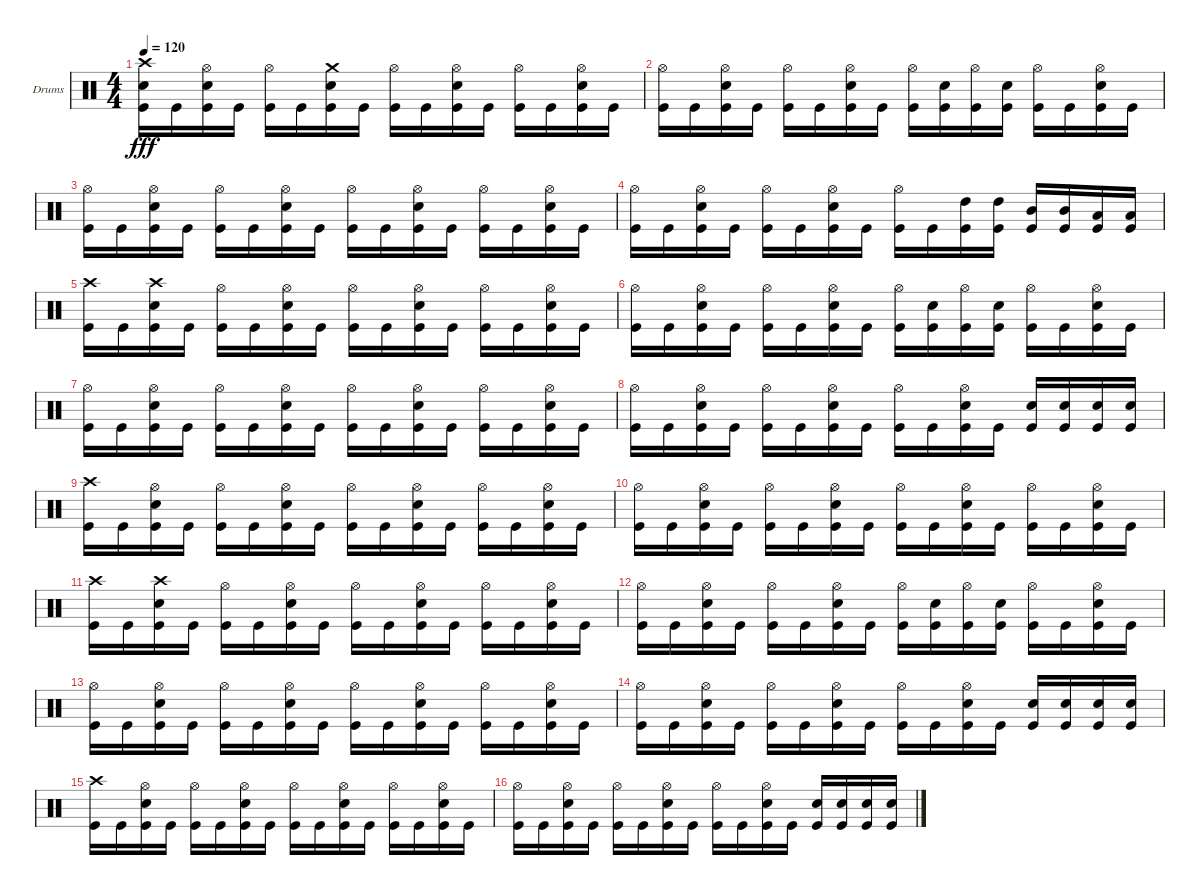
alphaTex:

\defaultSystemsLayout 4
\bracketExtendMode groupsimilarinstruments
\firstSystemTrackNameOrientation horizontal
\otherSystemsTrackNameOrientation horizontal
\track ("Jon Larsen" "Drums") {instrument percussion}
\staff {score}
\articulation defaults
\ts (4 4)
\tempo 120
\clef neutral
\scale
0.333333
\ks c
("Kick (hit)" "Crash high (hit)" "Snare (hit) 2").16{dy fff} "Kick (hit)".16 ("Kick (hit)" "Hi-Hat (open)" "Snare (hit) 2").16 "Kick (hit)".16 ("Kick (hit)" "Hi-Hat (open)").16 "Kick (hit)".16 ("Kick (hit)" "Snare (hit) 2" "Crash medium (hit)").16 "Kick (hit)".16 ("Kick (hit)" "Hi-Hat (open)").16 "Kick (hit)".16 ("Kick (hit)" "Hi-Hat (open)" "Snare (hit) 2").16 "Kick (hit)".16 ("Kick (hit)" "Hi-Hat (open)").16 "Kick (hit)".16 ("Kick (hit)" "Hi-Hat (open)" "Snare (hit) 2").16 "Kick (hit)".16 |
\scale
0.333333 ("Kick (hit)" "Hi-Hat (open)").16 "Kick (hit)".16 ("Kick (hit)" "Snare (hit) 2" "Hi-Hat (open)").16 "Kick (hit)".16 ("Kick (hit)" "Hi-Hat (open)").16 "Kick (hit)".16 ("Kick (hit)" "Snare (hit) 2" "Hi-Hat (open)").16 "Kick (hit)".16 ("Kick (hit)" "Hi-Hat (open)").16 ("Kick (hit)" "Snare (hit) 2").16 ("Kick (hit)" "Hi-Hat (open)").16 ("Kick (hit)" "Snare (hit) 2").16 ("Kick (hit)" "Hi-Hat (open)").16 "Kick (hit)".16 ("Kick (hit)" "Hi-Hat (open)" "Snare (hit) 2").16 "Kick (hit)".16 |
\scale
0.333333 ("Kick (hit)" "Hi-Hat (open)").16 "Kick (hit)".16 ("Kick (hit)" "Snare (hit) 2" "Hi-Hat (open)").16 "Kick (hit)".16 ("Kick (hit)" "Hi-Hat (open)").16 "Kick (hit)".16 ("Kick (hit)" "Snare (hit) 2" "Hi-Hat (open)").16 "Kick (hit)".16 ("Kick (hit)" "Hi-Hat (open)").16 "Kick (hit)".16 ("Kick (hit)" "Snare (hit) 2" "Hi-Hat (open)").16 "Kick (hit)".16 ("Kick (hit)" "Hi-Hat (open)").16 "Kick (hit)".16 ("Kick (hit)" "Snare (hit) 2" "Hi-Hat (open)").16 "Kick (hit)".16 |
\scale
0.333333 ("Kick (hit)" "Hi-Hat (open)").16 "Kick (hit)".16 ("Kick (hit)" "Snare (hit) 2" "Hi-Hat (open)").16 "Kick (hit)".16 ("Kick (hit)" "Hi-Hat (open)").16 "Kick (hit)".16 ("Kick (hit)" "Snare (hit) 2" "Hi-Hat (open)").16 "Kick (hit)".16 ("Kick (hit)" "Hi-Hat (open)").16 "Kick (hit)".16 ("Kick (hit)" "High Tom (hit)").16 ("Kick (hit)" "High Tom (hit)").16 ("Kick (hit)" "Mid Tom (hit)").16 ("Kick (hit)" "Mid Tom (hit)").16 ("Kick (hit)" "Low Tom (hit)").16 ("Kick (hit)" "Low Tom (hit)").16 |
\scale
0.333333 ("Crash high (hit)" "Kick (hit)").16 "Kick (hit)".16 ("Kick (hit)" "Crash high (hit)" "Snare (hit) 2").16 "Kick (hit)".16 ("Kick (hit)" "Hi-Hat (open)").16 "Kick (hit)".16 ("Kick (hit)" "Snare (hit) 2" "Hi-Hat (open)").16 "Kick (hit)".16 ("Kick (hit)" "Hi-Hat (open)").16 "Kick (hit)".16 ("Kick (hit)" "Snare (hit) 2" "Hi-Hat (open)").16 "Kick (hit)".16 ("Kick (hit)" "Hi-Hat (open)").16 "Kick (hit)".16 ("Kick (hit)" "Snare (hit) 2" "Hi-Hat (open)").16 "Kick (hit)".16 |
\scale
0.333333 ("Kick (hit)" "Hi-Hat (open)").16 "Kick (hit)".16 ("Kick (hit)" "Snare (hit) 2" "Hi-Hat (open)").16 "Kick (hit)".16 ("Kick (hit)" "Hi-Hat (open)").16 "Kick (hit)".16 ("Kick (hit)" "Snare (hit) 2" "Hi-Hat (open)").16 "Kick (hit)".16 ("Kick (hit)" "Hi-Hat (open)").16 ("Kick (hit)" "Snare (hit) 2").16 ("Kick (hit)" "Hi-Hat (open)").16 ("Kick (hit)" "Snare (hit) 2").16 ("Kick (hit)" "Hi-Hat (open)").16 "Kick (hit)".16 ("Kick (hit)" "Hi-Hat (open)" "Snare (hit) 2").16 "Kick (hit)".16 |
\scale
0.333333 ("Kick (hit)" "Hi-Hat (open)").16 "Kick (hit)".16 ("Kick (hit)" "Snare (hit) 2" "Hi-Hat (open)").16 "Kick (hit)".16 ("Kick (hit)" "Hi-Hat (open)").16 "Kick (hit)".16 ("Kick (hit)" "Snare (hit) 2" "Hi-Hat (open)").16 "Kick (hit)".16 ("Kick (hit)" "Hi-Hat (open)").16 "Kick (hit)".16 ("Kick (hit)" "Snare (hit) 2" "Hi-Hat (open)").16 "Kick (hit)".16 ("Kick (hit)" "Hi-Hat (open)").16 "Kick (hit)".16 ("Kick (hit)" "Snare (hit) 2" "Hi-Hat (open)").16 "Kick (hit)".16 |
\scale
0.333333 ("Kick (hit)" "Hi-Hat (open)").16 "Kick (hit)".16 ("Kick (hit)" "Snare (hit) 2" "Hi-Hat (open)").16 "Kick (hit)".16 ("Kick (hit)" "Hi-Hat (open)").16 "Kick (hit)".16 ("Kick (hit)" "Snare (hit) 2" "Hi-Hat (open)").16 "Kick (hit)".16 ("Kick (hit)" "Hi-Hat (open)").16 "Kick (hit)".16 ("Kick (hit)" "Snare (hit) 2" "Hi-Hat (open)").16 "Kick (hit)".16 ("Kick (hit)" "Snare (hit) 2").16 ("Kick (hit)" "Snare (hit) 2").16 ("Kick (hit)" "Snare (hit) 2").16 ("Kick (hit)" "Snare (hit) 2").16 |
\scale
0.333333 ("Kick (hit)" "Crash high (hit)").16 "Kick (hit)".16 ("Kick (hit)" "Hi-Hat (open)" "Snare (hit) 2").16 "Kick (hit)".16 ("Kick (hit)" "Hi-Hat (open)").16 "Kick (hit)".16 ("Kick (hit)" "Hi-Hat (open)" "Snare (hit) 2").16 "Kick (hit)".16 ("Kick (hit)" "Hi-Hat (open)").16 "Kick (hit)".16 ("Kick (hit)" "Hi-Hat (open)" "Snare (hit) 2").16 "Kick (hit)".16 ("Kick (hit)" "Hi-Hat (open)").16 "Kick (hit)".16 ("Kick (hit)" "Hi-Hat (open)" "Snare (hit) 2").16 "Kick (hit)".16 |
\scale
0.333333 ("Kick (hit)" "Hi-Hat (open)").16 "Kick (hit)".16 ("Kick (hit)" "Snare (hit) 2" "Hi-Hat (open)").16 "Kick (hit)".16 ("Kick (hit)" "Hi-Hat (open)").16 "Kick (hit)".16 ("Kick (hit)" "Snare (hit) 2" "Hi-Hat (open)").16 "Kick (hit)".16 ("Kick (hit)" "Hi-Hat (open)").16 "Kick (hit)".16 ("Kick (hit)" "Snare (hit) 2" "Hi-Hat (open)").16 "Kick (hit)".16 ("Kick (hit)" "Hi-Hat (open)").16 "Kick (hit)".16 ("Kick (hit)" "Snare (hit) 2" "Hi-Hat (open)").16 "Kick (hit)".16 |
\scale
0.333333 ("Crash high (hit)" "Kick (hit)").16 "Kick (hit)".16 ("Kick (hit)" "Crash high (hit)" "Snare (hit) 2").16 "Kick (hit)".16 ("Kick (hit)" "Hi-Hat (open)").16 "Kick (hit)".16 ("Kick (hit)" "Snare (hit) 2" "Hi-Hat (open)").16 "Kick (hit)".16 ("Kick (hit)" "Hi-Hat (open)").16 "Kick (hit)".16 ("Kick (hit)" "Snare (hit) 2" "Hi-Hat (open)").16 "Kick (hit)".16 ("Kick (hit)" "Hi-Hat (open)").16 "Kick (hit)".16 ("Kick (hit)" "Snare (hit) 2" "Hi-Hat (open)").16 "Kick (hit)".16 |
\scale
0.333333 ("Kick (hit)" "Hi-Hat (open)").16 "Kick (hit)".16 ("Kick (hit)" "Snare (hit) 2" "Hi-Hat (open)").16 "Kick (hit)".16 ("Kick (hit)" "Hi-Hat (open)").16 "Kick (hit)".16 ("Kick (hit)" "Snare (hit) 2" "Hi-Hat (open)").16 "Kick (hit)".16 ("Kick (hit)" "Hi-Hat (open)").16 ("Kick (hit)" "Snare (hit) 2").16 ("Kick (hit)" "Hi-Hat (open)").16 ("Kick (hit)" "Snare (hit) 2").16 ("Kick (hit)" "Hi-Hat (open)").16 "Kick (hit)".16 ("Kick (hit)" "Hi-Hat (open)" "Snare (hit) 2").16 "Kick (hit)".16 |
\scale
0.333333 ("Kick (hit)" "Hi-Hat (open)").16 "Kick (hit)".16 ("Kick (hit)" "Snare (hit) 2" "Hi-Hat (open)").16 "Kick (hit)".16 ("Kick (hit)" "Hi-Hat (open)").16 "Kick (hit)".16 ("Kick (hit)" "Snare (hit) 2" "Hi-Hat (open)").16 "Kick (hit)".16 ("Kick (hit)" "Hi-Hat (open)").16 "Kick (hit)".16 ("Kick (hit)" "Snare (hit) 2" "Hi-Hat (open)").16 "Kick (hit)".16 ("Kick (hit)" "Hi-Hat (open)").16 "Kick (hit)".16 ("Kick (hit)" "Snare (hit) 2" "Hi-Hat (open)").16 "Kick (hit)".16 |
\scale
0.333333 ("Kick (hit)" "Hi-Hat (open)").16 "Kick (hit)".16 ("Kick (hit)" "Snare (hit) 2" "Hi-Hat (open)").16 "Kick (hit)".16 ("Kick (hit)" "Hi-Hat (open)").16 "Kick (hit)".16 ("Kick (hit)" "Snare (hit) 2" "Hi-Hat (open)").16 "Kick (hit)".16 ("Kick (hit)" "Hi-Hat (open)").16 "Kick (hit)".16 ("Kick (hit)" "Snare (hit) 2" "Hi-Hat (open)").16 "Kick (hit)".16 ("Kick (hit)" "Snare (hit) 2").16 ("Kick (hit)" "Snare (hit) 2").16 ("Kick (hit)" "Snare (hit) 2").16 ("Kick (hit)" "Snare (hit) 2").16 |
\scale
0.333333 ("Kick (hit)" "Crash high (hit)").16 "Kick (hit)".16 ("Kick (hit)" "Hi-Hat (open)" "Snare (hit) 2").16 "Kick (hit)".16 ("Kick (hit)" "Hi-Hat (open)").16 "Kick (hit)".16 ("Kick (hit)" "Hi-Hat (open)" "Snare (hit) 2").16 "Kick (hit)".16 ("Kick (hit)" "Hi-Hat (open)").16 "Kick (hit)".16 ("Kick (hit)" "Hi-Hat (open)" "Snare (hit) 2").16 "Kick (hit)".16 ("Kick (hit)" "Hi-Hat (open)").16 "Kick (hit)".16 ("Kick (hit)" "Hi-Hat (open)" "Snare (hit) 2").16 "Kick (hit)".16 |
\scale
0.333333 ("Kick (hit)" "Hi-Hat (open)").16 "Kick (hit)".16 ("Kick (hit)" "Snare (hit) 2" "Hi-Hat (open)").16 "Kick (hit)".16 ("Kick (hit)" "Hi-Hat (open)").16 "Kick (hit)".16 ("Kick (hit)" "Snare (hit) 2" "Hi-Hat (open)").16 "Kick (hit)".16 ("Kick (hit)" "Hi-Hat (open)").16 "Kick (hit)".16 ("Kick (hit)" "Snare (hit) 2" "Hi-Hat (open)").16 "Kick (hit)".16 ("Kick (hit)" "Snare (hit) 2").16 ("Kick (hit)" "Snare (hit) 2").16 ("Kick (hit)" "Snare (hit) 2").16 ("Kick (hit)" "Snare (hit) 2").16
